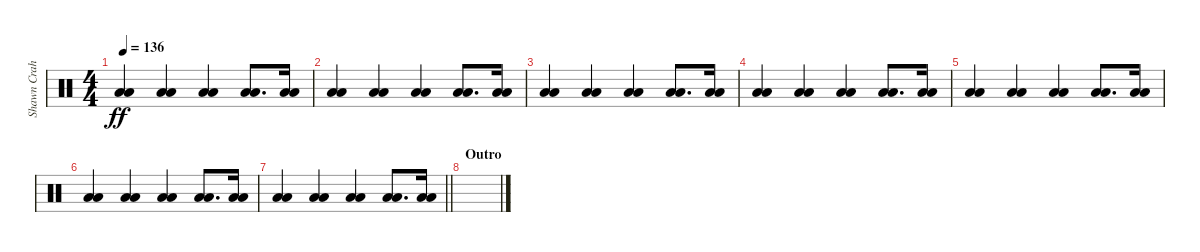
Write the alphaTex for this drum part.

\track ("Shawn Crahan" "Shawn Crah") {instrument percussion}
\staff {score}
\articulation defaults
\ts (4 4)
\tempo 136
\clef neutral
\ks c
("Low Floor Tom (hit)" "Low Floor Tom (hit)").4{dy ff} ("Low Floor Tom (hit)" "Low Floor Tom (hit)").4 ("Low Floor Tom (hit)" "Low Floor Tom (hit)").4 ("Low Floor Tom (hit)" "Low Floor Tom (hit)").8{d} ("Low Floor Tom (hit)" "Low Floor Tom (hit)").16 |
("Low Floor Tom (hit)" "Low Floor Tom (hit)").4 ("Low Floor Tom (hit)" "Low Floor Tom (hit)").4 ("Low Floor Tom (hit)" "Low Floor Tom (hit)").4 ("Low Floor Tom (hit)" "Low Floor Tom (hit)").8{d} ("Low Floor Tom (hit)" "Low Floor Tom (hit)").16 |
("Low Floor Tom (hit)" "Low Floor Tom (hit)").4 ("Low Floor Tom (hit)" "Low Floor Tom (hit)").4 ("Low Floor Tom (hit)" "Low Floor Tom (hit)").4 ("Low Floor Tom (hit)" "Low Floor Tom (hit)").8{d} ("Low Floor Tom (hit)" "Low Floor Tom (hit)").16 |
("Low Floor Tom (hit)" "Low Floor Tom (hit)").4 ("Low Floor Tom (hit)" "Low Floor Tom (hit)").4 ("Low Floor Tom (hit)" "Low Floor Tom (hit)").4 ("Low Floor Tom (hit)" "Low Floor Tom (hit)").8{d} ("Low Floor Tom (hit)" "Low Floor Tom (hit)").16 |
("Low Floor Tom (hit)" "Low Floor Tom (hit)").4 ("Low Floor Tom (hit)" "Low Floor Tom (hit)").4 ("Low Floor Tom (hit)" "Low Floor Tom (hit)").4 ("Low Floor Tom (hit)" "Low Floor Tom (hit)").8{d} ("Low Floor Tom (hit)" "Low Floor Tom (hit)").16 |
("Low Floor Tom (hit)" "Low Floor Tom (hit)").4 ("Low Floor Tom (hit)" "Low Floor Tom (hit)").4 ("Low Floor Tom (hit)" "Low Floor Tom (hit)").4 ("Low Floor Tom (hit)" "Low Floor Tom (hit)").8{d} ("Low Floor Tom (hit)" "Low Floor Tom (hit)").16 |
\barLineRight lightlight
("Low Floor Tom (hit)" "Low Floor Tom (hit)").4 ("Low Floor Tom (hit)" "Low Floor Tom (hit)").4 ("Low Floor Tom (hit)" "Low Floor Tom (hit)").4 ("Low Floor Tom (hit)" "Low Floor Tom (hit)").8{d} ("Low Floor Tom (hit)" "Low Floor Tom (hit)").16 |
\section ("" "Outro")
